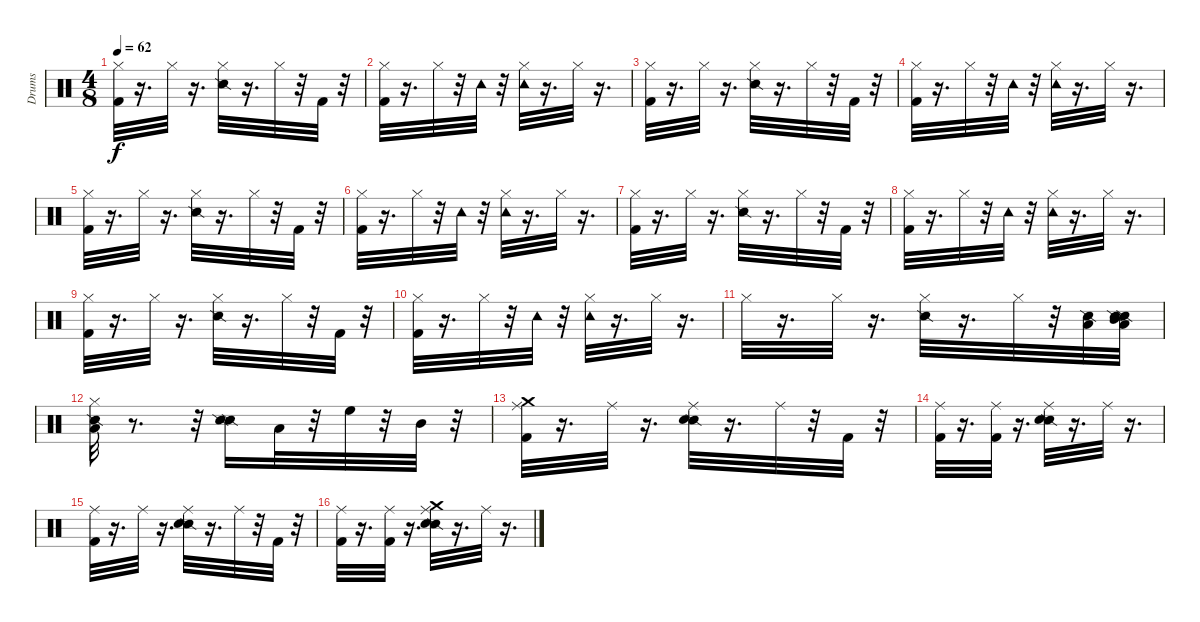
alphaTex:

\track ("Drums" "Drums") {instrument percussion}
\staff {score}
\articulation defaults
\ts (4 8)
\tempo 62
\clef neutral
\ks c
("Kick (hit) 2" "Hi-Hat (closed)").32{dy f} r.16{d} "Hi-Hat (closed)".32 r.16{d} ("Snare (side stick) 2" "Hi-Hat (closed)").32 r.16{d} "Hi-Hat (closed)".32 r.32 "Kick (hit) 2".32 r.32 |
("Kick (hit) 2" "Hi-Hat (closed)").32 r.16{d} "Hi-Hat (closed)".32 r.32 "Tambourine (hit)".32 r.32 ("Hi-Hat (closed)" "Tambourine (hit)").32 r.16{d} "Hi-Hat (closed)".32 r.16{d} |
("Kick (hit) 2" "Hi-Hat (closed)").32 r.16{d} "Hi-Hat (closed)".32 r.16{d} ("Snare (side stick) 2" "Hi-Hat (closed)").32 r.16{d} "Hi-Hat (closed)".32 r.32 "Kick (hit) 2".32 r.32 |
("Kick (hit) 2" "Hi-Hat (closed)").32 r.16{d} "Hi-Hat (closed)".32 r.32 "Tambourine (hit)".32 r.32 ("Hi-Hat (closed)" "Tambourine (hit)").32 r.16{d} "Hi-Hat (closed)".32 r.16{d} |
("Kick (hit) 2" "Hi-Hat (closed)").32 r.16{d} "Hi-Hat (closed)".32 r.16{d} ("Snare (side stick) 2" "Hi-Hat (closed)").32 r.16{d} "Hi-Hat (closed)".32 r.32 "Kick (hit) 2".32 r.32 |
("Kick (hit) 2" "Hi-Hat (closed)").32 r.16{d} "Hi-Hat (closed)".32 r.32 "Tambourine (hit)".32 r.32 ("Hi-Hat (closed)" "Tambourine (hit)").32 r.16{d} "Hi-Hat (closed)".32 r.16{d} |
("Kick (hit) 2" "Hi-Hat (closed)").32 r.16{d} "Hi-Hat (closed)".32 r.16{d} ("Snare (side stick) 2" "Hi-Hat (closed)").32 r.16{d} "Hi-Hat (closed)".32 r.32 "Kick (hit) 2".32 r.32 |
("Kick (hit) 2" "Hi-Hat (closed)").32 r.16{d} "Hi-Hat (closed)".32 r.32 "Tambourine (hit)".32 r.32 ("Hi-Hat (closed)" "Tambourine (hit)").32 r.16{d} "Hi-Hat (closed)".32 r.16{d} |
("Kick (hit) 2" "Hi-Hat (closed)").32 r.16{d} "Hi-Hat (closed)".32 r.16{d} ("Snare (side stick) 2" "Hi-Hat (closed)").32 r.16{d} "Hi-Hat (closed)".32 r.32 "Kick (hit) 2".32 r.32 |
("Kick (hit) 2" "Hi-Hat (closed)").32 r.16{d} "Hi-Hat (closed)".32 r.32 "Tambourine (hit)".32 r.32 ("Hi-Hat (closed)" "Tambourine (hit)").32 r.16{d} "Hi-Hat (closed)".32 r.16{d} |
"Hi-Hat (closed)".32 r.16{d} "Hi-Hat (closed)".32 r.16{d} ("Snare (side stick) 2" "Hi-Hat (closed)").32 r.16{d} "Hi-Hat (closed)".32 r.32 ("Low Tom (hit)" "Snare (side stick) 2").32 ("Mid Tom (hit)" "Snare (side stick) 2" "Low Tom (hit)" "Snare (side stick) 2").32 |
("Low Floor Tom (hit)" "Snare (side stick) 2" "Hi-Hat (closed)").32 r.8{d} r.32 ("Snare (side stick) 2" "Snare (side stick) 2").16 "Low Tom (hit)".32 r.32 "High Floor Tom (hit)".32 r.32 "Mid Tom (hit)".32 r.32 |
("Kick (hit) 2" "Ride (middle)" "Crash medium (hit)").32 r.16{d} "Ride (middle)".32 r.16{d} ("Snare (side stick) 2" "Snare (hit) 2" "Ride (middle)").32 r.16{d} "Ride (middle)".32 r.32 "Kick (hit) 2".32 r.32 |
("Kick (hit) 2" "Ride (middle)").32 r.16{d} ("Kick (hit) 2" "Ride (middle)").32 r.16{d} ("Snare (side stick) 2" "Snare (hit) 2" "Ride (middle)").32 r.16{d} "Ride (middle)".32 r.16{d} |
("Kick (hit) 2" "Ride (middle)").32 r.16{d} "Ride (middle)".32 r.16{d} ("Snare (side stick) 2" "Snare (hit) 2" "Ride (middle)").32 r.16{d} "Ride (middle)".32 r.32 "Kick (hit) 2".32 r.32 |
("Kick (hit) 2" "Ride (middle)").32 r.16{d} ("Kick (hit) 2" "Ride (middle)").32 r.16{d} ("Snare (side stick) 2" "Snare (hit) 2" "Ride (middle)" "Crash medium (hit)").32 r.16{d} "Ride (middle)".32 r.16{d}
